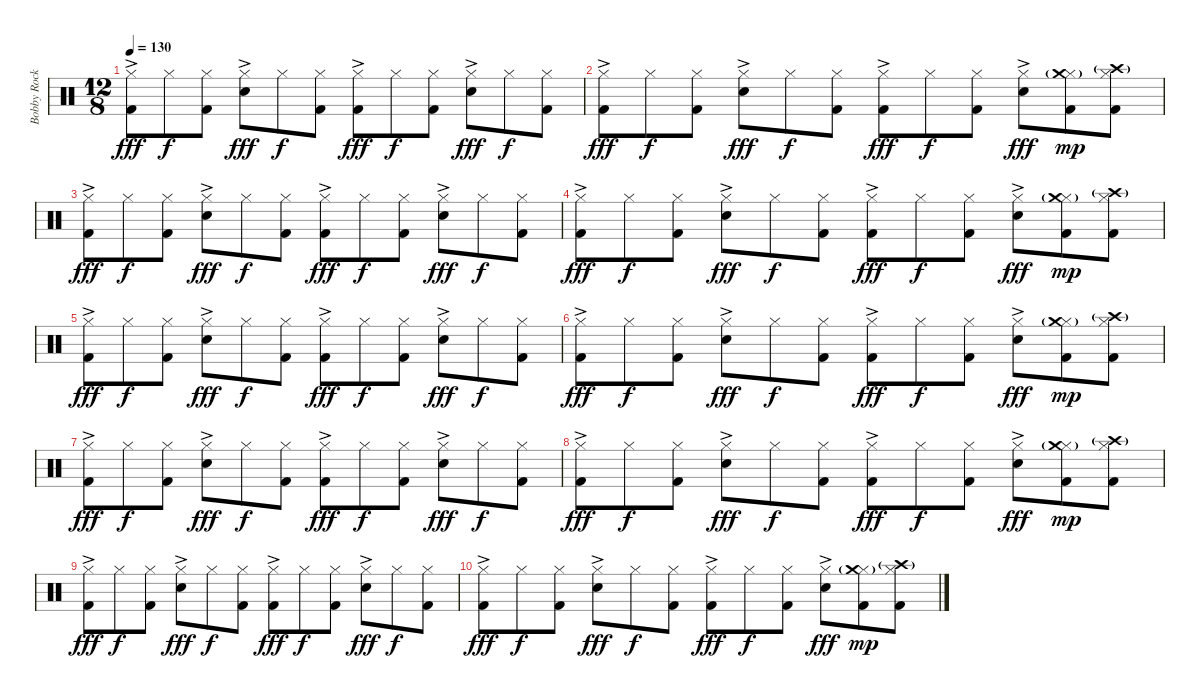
\track ("Bobby Rock - drums" "Bobby Rock") {instrument percussion}
\staff {score}
\articulation defaults
\ts (12 8)
\tempo 130
\clef neutral
\ks c
("Hi-Hat (closed)"{ac} "Kick (hit) 2").8{dy fff} "Hi-Hat (closed)".8{dy f} ("Hi-Hat (closed)" "Kick (hit) 2").8 ("Hi-Hat (closed)"{ac} "Snare (hit) 2").8{dy fff} "Hi-Hat (closed)".8{dy f} ("Hi-Hat (closed)" "Kick (hit) 2").8 ("Hi-Hat (closed)"{ac} "Kick (hit) 2").8{dy fff} "Hi-Hat (closed)".8{dy f} ("Hi-Hat (closed)" "Kick (hit) 2").8 ("Hi-Hat (closed)"{ac} "Snare (hit) 2").8{dy fff} "Hi-Hat (closed)".8{dy f} ("Hi-Hat (closed)" "Kick (hit) 2").8 |
("Hi-Hat (closed)"{ac} "Kick (hit) 2").8{dy fff} "Hi-Hat (closed)".8{dy f} ("Hi-Hat (closed)" "Kick (hit) 2").8 ("Hi-Hat (closed)"{ac} "Snare (hit) 2").8{dy fff} "Hi-Hat (closed)".8{dy f} ("Hi-Hat (closed)" "Kick (hit) 2").8 ("Hi-Hat (closed)"{ac} "Kick (hit) 2").8{dy fff} "Hi-Hat (closed)".8{dy f} ("Hi-Hat (closed)" "Kick (hit) 2").8 ("Hi-Hat (closed)"{ac} "Snare (hit) 2").8{dy fff} ("Hi-Hat (closed)" "Crash medium (hit)"{g} "Kick (hit) 2").8{dy mp} ("Hi-Hat (closed)" "Crash high (hit)"{g} "Kick (hit) 2").8 |
("Hi-Hat (closed)"{ac} "Kick (hit) 2").8{dy fff} "Hi-Hat (closed)".8{dy f} ("Hi-Hat (closed)" "Kick (hit) 2").8 ("Hi-Hat (closed)"{ac} "Snare (hit) 2").8{dy fff} "Hi-Hat (closed)".8{dy f} ("Hi-Hat (closed)" "Kick (hit) 2").8 ("Hi-Hat (closed)"{ac} "Kick (hit) 2").8{dy fff} "Hi-Hat (closed)".8{dy f} ("Hi-Hat (closed)" "Kick (hit) 2").8 ("Hi-Hat (closed)"{ac} "Snare (hit) 2").8{dy fff} "Hi-Hat (closed)".8{dy f} ("Hi-Hat (closed)" "Kick (hit) 2").8 |
("Hi-Hat (closed)"{ac} "Kick (hit) 2").8{dy fff} "Hi-Hat (closed)".8{dy f} ("Hi-Hat (closed)" "Kick (hit) 2").8 ("Hi-Hat (closed)"{ac} "Snare (hit) 2").8{dy fff} "Hi-Hat (closed)".8{dy f} ("Hi-Hat (closed)" "Kick (hit) 2").8 ("Hi-Hat (closed)"{ac} "Kick (hit) 2").8{dy fff} "Hi-Hat (closed)".8{dy f} ("Hi-Hat (closed)" "Kick (hit) 2").8 ("Hi-Hat (closed)"{ac} "Snare (hit) 2").8{dy fff} ("Hi-Hat (closed)" "Crash medium (hit)"{g} "Kick (hit) 2").8{dy mp} ("Hi-Hat (closed)" "Crash high (hit)"{g} "Kick (hit) 2").8 |
("Hi-Hat (closed)"{ac} "Kick (hit) 2").8{dy fff} "Hi-Hat (closed)".8{dy f} ("Hi-Hat (closed)" "Kick (hit) 2").8 ("Hi-Hat (closed)"{ac} "Snare (hit) 2").8{dy fff} "Hi-Hat (closed)".8{dy f} ("Hi-Hat (closed)" "Kick (hit) 2").8 ("Hi-Hat (closed)"{ac} "Kick (hit) 2").8{dy fff} "Hi-Hat (closed)".8{dy f} ("Hi-Hat (closed)" "Kick (hit) 2").8 ("Hi-Hat (closed)"{ac} "Snare (hit) 2").8{dy fff} "Hi-Hat (closed)".8{dy f} ("Hi-Hat (closed)" "Kick (hit) 2").8 |
("Hi-Hat (closed)"{ac} "Kick (hit) 2").8{dy fff} "Hi-Hat (closed)".8{dy f} ("Hi-Hat (closed)" "Kick (hit) 2").8 ("Hi-Hat (closed)"{ac} "Snare (hit) 2").8{dy fff} "Hi-Hat (closed)".8{dy f} ("Hi-Hat (closed)" "Kick (hit) 2").8 ("Hi-Hat (closed)"{ac} "Kick (hit) 2").8{dy fff} "Hi-Hat (closed)".8{dy f} ("Hi-Hat (closed)" "Kick (hit) 2").8 ("Hi-Hat (closed)"{ac} "Snare (hit) 2").8{dy fff} ("Hi-Hat (closed)" "Crash medium (hit)"{g} "Kick (hit) 2").8{dy mp} ("Hi-Hat (closed)" "Crash high (hit)"{g} "Kick (hit) 2").8 |
("Hi-Hat (closed)"{ac} "Kick (hit) 2").8{dy fff} "Hi-Hat (closed)".8{dy f} ("Hi-Hat (closed)" "Kick (hit) 2").8 ("Hi-Hat (closed)"{ac} "Snare (hit) 2").8{dy fff} "Hi-Hat (closed)".8{dy f} ("Hi-Hat (closed)" "Kick (hit) 2").8 ("Hi-Hat (closed)"{ac} "Kick (hit) 2").8{dy fff} "Hi-Hat (closed)".8{dy f} ("Hi-Hat (closed)" "Kick (hit) 2").8 ("Hi-Hat (closed)"{ac} "Snare (hit) 2").8{dy fff} "Hi-Hat (closed)".8{dy f} ("Hi-Hat (closed)" "Kick (hit) 2").8 |
("Hi-Hat (closed)"{ac} "Kick (hit) 2").8{dy fff} "Hi-Hat (closed)".8{dy f} ("Hi-Hat (closed)" "Kick (hit) 2").8 ("Hi-Hat (closed)"{ac} "Snare (hit) 2").8{dy fff} "Hi-Hat (closed)".8{dy f} ("Hi-Hat (closed)" "Kick (hit) 2").8 ("Hi-Hat (closed)"{ac} "Kick (hit) 2").8{dy fff} "Hi-Hat (closed)".8{dy f} ("Hi-Hat (closed)" "Kick (hit) 2").8 ("Hi-Hat (closed)"{ac} "Snare (hit) 2").8{dy fff} ("Hi-Hat (closed)" "Crash medium (hit)"{g} "Kick (hit) 2").8{dy mp} ("Hi-Hat (closed)" "Crash high (hit)"{g} "Kick (hit) 2").8 |
("Hi-Hat (closed)"{ac} "Kick (hit) 2").8{dy fff} "Hi-Hat (closed)".8{dy f} ("Hi-Hat (closed)" "Kick (hit) 2").8 ("Hi-Hat (closed)"{ac} "Snare (hit) 2").8{dy fff} "Hi-Hat (closed)".8{dy f} ("Hi-Hat (closed)" "Kick (hit) 2").8 ("Hi-Hat (closed)"{ac} "Kick (hit) 2").8{dy fff} "Hi-Hat (closed)".8{dy f} ("Hi-Hat (closed)" "Kick (hit) 2").8 ("Hi-Hat (closed)"{ac} "Snare (hit) 2").8{dy fff} "Hi-Hat (closed)".8{dy f} ("Hi-Hat (closed)" "Kick (hit) 2").8 |
("Hi-Hat (closed)"{ac} "Kick (hit) 2").8{dy fff} "Hi-Hat (closed)".8{dy f} ("Hi-Hat (closed)" "Kick (hit) 2").8 ("Hi-Hat (closed)"{ac} "Snare (hit) 2").8{dy fff} "Hi-Hat (closed)".8{dy f} ("Hi-Hat (closed)" "Kick (hit) 2").8 ("Hi-Hat (closed)"{ac} "Kick (hit) 2").8{dy fff} "Hi-Hat (closed)".8{dy f} ("Hi-Hat (closed)" "Kick (hit) 2").8 ("Hi-Hat (closed)"{ac} "Snare (hit) 2").8{dy fff} ("Hi-Hat (closed)" "Crash medium (hit)"{g} "Kick (hit) 2").8{dy mp} ("Hi-Hat (closed)" "Crash high (hit)"{g} "Kick (hit) 2").8
